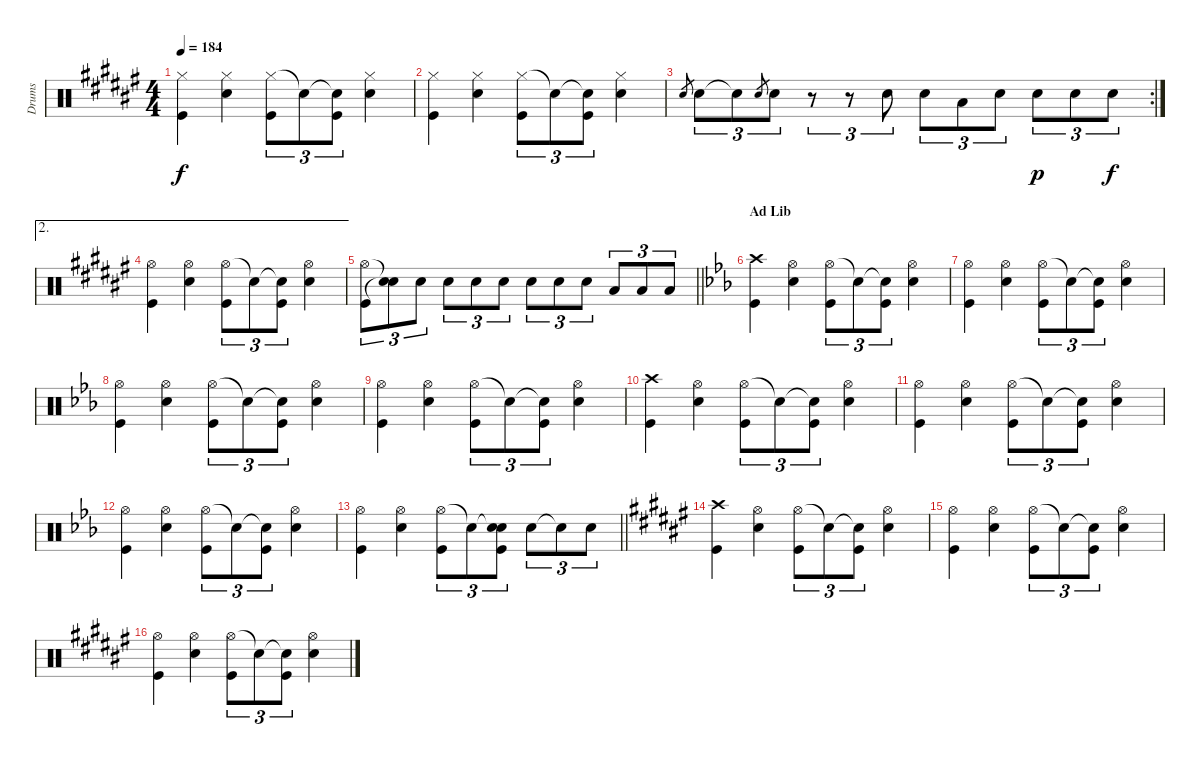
\track ("Drums" "Drums") {instrument percussion}
\staff {score}
\articulation defaults
\ts (4 4)
\tempo 184
\clef neutral
\ks f#
("Hi-Hat (closed)" "Kick (hit)").4{dy f} ("Hi-Hat (closed)" "Electric Snare (hit)").4 ("Hi-Hat (closed)" "Kick (hit)").8{tu (3 2)} "Snare (hit)"{t}.8{tu (3 2)} ("Snare (hit)"{t} "Kick (hit)").8{tu (3 2)} ("Hi-Hat (closed)" "Electric Snare (hit)").4 |
("Hi-Hat (closed)" "Kick (hit)").4 ("Hi-Hat (closed)" "Electric Snare (hit)").4 ("Hi-Hat (closed)" "Kick (hit)").8{tu (3 2)} "Snare (hit)"{t}.8{tu (3 2)} ("Snare (hit)"{t} "Kick (hit)").8{tu (3 2)} ("Hi-Hat (closed)" "Electric Snare (hit)").4 |
\rc 2 "Electric Snare (hit)".8{gr} "Electric Snare (hit)".8{tu (3 2)} "Snare (hit)"{t}.8{tu (3 2)} "Electric Snare (hit)".8{gr} "Electric Snare (hit)".8{tu (3 2)}
r.8{tu (3 2)} r.8{tu (3 2)} "Electric Snare (hit)".8{tu (3 2)} "Electric Snare (hit)".8{tu (3 2)} "Low Tom (hit)".8{tu (3 2)} "Electric Snare (hit)".8{tu (3 2)} "Electric Snare (hit)".8{tu (3 2) dy p} "Electric Snare (hit)".8{tu (3 2)} "Electric Snare (hit)".8{tu (3 2) dy f} |
\ae 2
("Hi-Hat (open)" "Kick (hit)").4 ("Hi-Hat (open)" "Electric Snare (hit)").4 ("Hi-Hat (open)" "Kick (hit)").8{tu (3 2)} "Snare (hit)"{t}.8{tu (3 2)} ("Snare (hit)"{t} "Kick (hit)").8{tu (3 2)} ("Hi-Hat (open)" "Electric Snare (hit)").4 |
\barLineRight lightlight
("Hi-Hat (open)" "Kick (hit)").8{tu (3 2)} ("Snare (hit)"{t} "Snare (hit)"{t}).8{tu (3 2)} "Electric Snare (hit)".8{tu (3 2)} "Electric Snare (hit)".8{tu (3 2)} "Electric Snare (hit)".8{tu (3 2)} "Electric Snare (hit)".8{tu (3 2)} "Electric Snare (hit)".8{tu (3 2)} "Electric Snare (hit)".8{tu (3 2)} "Electric Snare (hit)".8{tu (3 2)} "Low Tom (hit)".8{tu (3 2)} "Low Tom (hit)".8{tu (3 2)} "Low Tom (hit)".8{tu (3 2)} |
\section ("" "Ad Lib")
\ks eb
("Crash high (hit)" "Kick (hit)").4 ("Hi-Hat (open)" "Electric Snare (hit)").4 ("Hi-Hat (open)" "Kick (hit)").8{tu (3 2)} "Snare (hit)"{t}.8{tu (3 2)} ("Snare (hit)"{t} "Kick (hit)").8{tu (3 2)} ("Hi-Hat (open)" "Electric Snare (hit)").4 |
("Hi-Hat (open)" "Kick (hit)").4 ("Hi-Hat (open)" "Electric Snare (hit)").4 ("Hi-Hat (open)" "Kick (hit)").8{tu (3 2)} "Snare (hit)"{t}.8{tu (3 2)} ("Snare (hit)"{t} "Kick (hit)").8{tu (3 2)} ("Hi-Hat (open)" "Electric Snare (hit)").4 |
("Hi-Hat (open)" "Kick (hit)").4 ("Hi-Hat (open)" "Electric Snare (hit)").4 ("Hi-Hat (open)" "Kick (hit)").8{tu (3 2)} "Snare (hit)"{t}.8{tu (3 2)} ("Snare (hit)"{t} "Kick (hit)").8{tu (3 2)} ("Hi-Hat (open)" "Electric Snare (hit)").4 |
("Hi-Hat (open)" "Kick (hit)").4 ("Hi-Hat (open)" "Electric Snare (hit)").4 ("Hi-Hat (open)" "Kick (hit)").8{tu (3 2)} "Snare (hit)"{t}.8{tu (3 2)} ("Snare (hit)"{t} "Kick (hit)").8{tu (3 2)} ("Hi-Hat (open)" "Electric Snare (hit)").4 |
("Crash high (hit)" "Kick (hit)").4 ("Hi-Hat (open)" "Electric Snare (hit)").4 ("Hi-Hat (open)" "Kick (hit)").8{tu (3 2)} "Snare (hit)"{t}.8{tu (3 2)} ("Snare (hit)"{t} "Kick (hit)").8{tu (3 2)} ("Hi-Hat (open)" "Electric Snare (hit)").4 |
("Hi-Hat (open)" "Kick (hit)").4 ("Hi-Hat (open)" "Electric Snare (hit)").4 ("Hi-Hat (open)" "Kick (hit)").8{tu (3 2)} "Snare (hit)"{t}.8{tu (3 2)} ("Snare (hit)"{t} "Kick (hit)").8{tu (3 2)} ("Hi-Hat (open)" "Electric Snare (hit)").4 |
("Hi-Hat (open)" "Kick (hit)").4 ("Hi-Hat (open)" "Electric Snare (hit)").4 ("Hi-Hat (open)" "Kick (hit)").8{tu (3 2)} "Snare (hit)"{t}.8{tu (3 2)} ("Snare (hit)"{t} "Kick (hit)").8{tu (3 2)} ("Hi-Hat (open)" "Electric Snare (hit)").4 |
\barLineRight lightlight
("Hi-Hat (open)" "Kick (hit)").4 ("Hi-Hat (open)" "Electric Snare (hit)").4 ("Hi-Hat (open)" "Kick (hit)").8{tu (3 2)} "Snare (hit)"{t}.8{tu (3 2)} ("Snare (hit)"{t} "Electric Snare (hit)" "Kick (hit)").8{tu (3 2)} "Electric Snare (hit)".8{tu (3 2)} "Electric Snare (hit)"{t}.8{tu (3 2)} "Electric Snare (hit)".8{tu (3 2)} |
\ks f#
("Crash high (hit)" "Kick (hit)").4 ("Hi-Hat (open)" "Electric Snare (hit)").4 ("Hi-Hat (open)" "Kick (hit)").8{tu (3 2)} "Snare (hit)"{t}.8{tu (3 2)} ("Snare (hit)"{t} "Kick (hit)").8{tu (3 2)} ("Hi-Hat (open)" "Electric Snare (hit)").4 |
("Hi-Hat (open)" "Kick (hit)").4 ("Hi-Hat (open)" "Electric Snare (hit)").4 ("Hi-Hat (open)" "Kick (hit)").8{tu (3 2)} "Snare (hit)"{t}.8{tu (3 2)} ("Snare (hit)"{t} "Kick (hit)").8{tu (3 2)} ("Hi-Hat (open)" "Electric Snare (hit)").4 |
("Hi-Hat (open)" "Kick (hit)").4 ("Hi-Hat (open)" "Electric Snare (hit)").4 ("Hi-Hat (open)" "Kick (hit)").8{tu (3 2)} "Snare (hit)"{t}.8{tu (3 2)} ("Snare (hit)"{t} "Kick (hit)").8{tu (3 2)} ("Hi-Hat (open)" "Electric Snare (hit)").4
